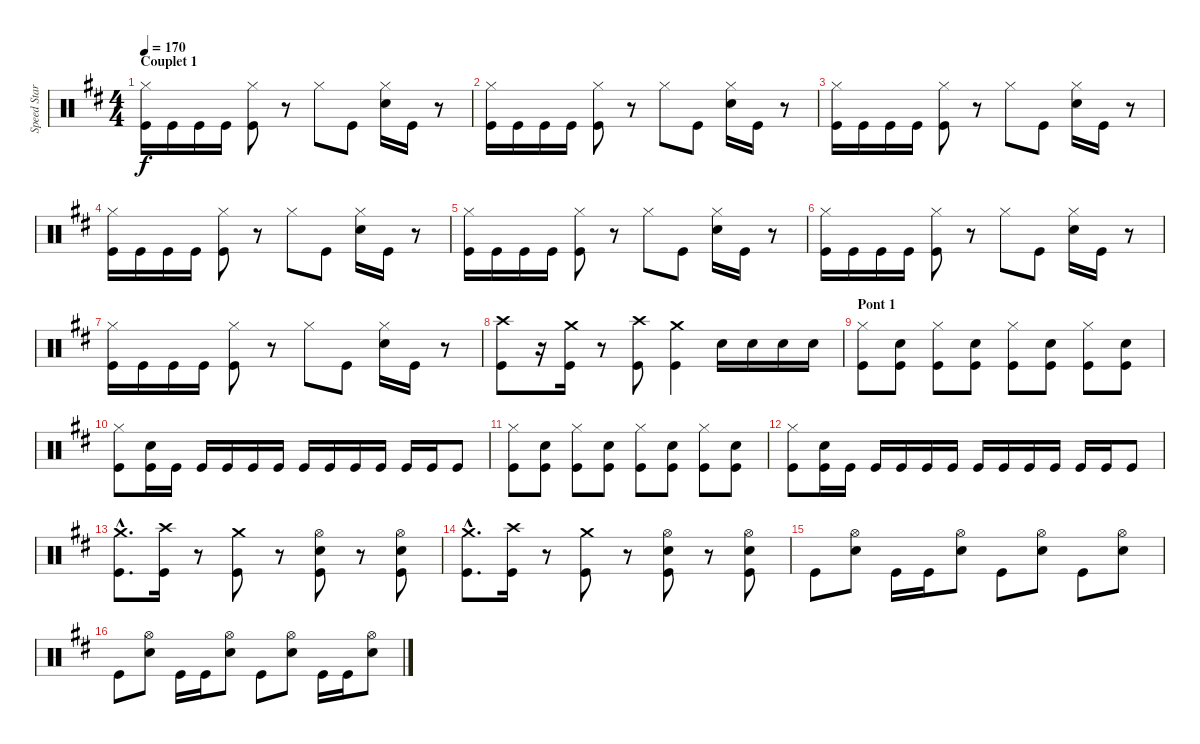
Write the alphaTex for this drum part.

\track ("Speed Star" "Speed Star") {instrument percussion}
\staff {score}
\articulation defaults
\ts (4 4)
\section ("" "Couplet 1")
\tempo 170
\clef neutral
\ks d
("Kick (hit)" "Hi-Hat (closed)").16{dy f} "Kick (hit)".16 "Kick (hit)".16 "Kick (hit)".16 ("Kick (hit)" "Hi-Hat (closed)").8 r.8 "Hi-Hat (closed)".8 "Kick (hit)".8 ("Snare (hit) 2" "Hi-Hat (closed)").16 "Kick (hit)".16 r.8 |
("Kick (hit)" "Hi-Hat (closed)").16 "Kick (hit)".16 "Kick (hit)".16 "Kick (hit)".16 ("Kick (hit)" "Hi-Hat (closed)").8 r.8 "Hi-Hat (closed)".8 "Kick (hit)".8 ("Snare (hit) 2" "Hi-Hat (closed)").16 "Kick (hit)".16 r.8 |
("Kick (hit)" "Hi-Hat (closed)").16 "Kick (hit)".16 "Kick (hit)".16 "Kick (hit)".16 ("Kick (hit)" "Hi-Hat (closed)").8 r.8 "Hi-Hat (closed)".8 "Kick (hit)".8 ("Snare (hit) 2" "Hi-Hat (closed)").16 "Kick (hit)".16 r.8 |
("Kick (hit)" "Hi-Hat (closed)").16 "Kick (hit)".16 "Kick (hit)".16 "Kick (hit)".16 ("Kick (hit)" "Hi-Hat (closed)").8 r.8 "Hi-Hat (closed)".8 "Kick (hit)".8 ("Snare (hit) 2" "Hi-Hat (closed)").16 "Kick (hit)".16 r.8 |
("Kick (hit)" "Hi-Hat (closed)").16 "Kick (hit)".16 "Kick (hit)".16 "Kick (hit)".16 ("Kick (hit)" "Hi-Hat (closed)").8 r.8 "Hi-Hat (closed)".8 "Kick (hit)".8 ("Snare (hit) 2" "Hi-Hat (closed)").16 "Kick (hit)".16 r.8 |
("Kick (hit)" "Hi-Hat (closed)").16 "Kick (hit)".16 "Kick (hit)".16 "Kick (hit)".16 ("Kick (hit)" "Hi-Hat (closed)").8 r.8 "Hi-Hat (closed)".8 "Kick (hit)".8 ("Snare (hit) 2" "Hi-Hat (closed)").16 "Kick (hit)".16 r.8 |
("Kick (hit)" "Hi-Hat (closed)").16 "Kick (hit)".16 "Kick (hit)".16 "Kick (hit)".16 ("Kick (hit)" "Hi-Hat (closed)").8 r.8 "Hi-Hat (closed)".8 "Kick (hit)".8 ("Snare (hit) 2" "Hi-Hat (closed)").16 "Kick (hit)".16 r.8 |
("Kick (hit)" "Crash high (hit)").8 r.16 ("Kick (hit)" "Crash medium (hit)").16 r.8 ("Kick (hit)" "Crash high (hit)").8 ("Kick (hit)" "Crash medium (hit)").4 "Snare (hit) 2".16 "Snare (hit) 2".16 "Snare (hit) 2".16 "Snare (hit) 2".16 |
\section ("" "Pont 1")
("Kick (hit)" "Hi-Hat (closed)").8 ("Kick (hit)" "Snare (hit) 2").8 ("Kick (hit)" "Hi-Hat (closed)").8 ("Kick (hit)" "Snare (hit) 2").8 ("Kick (hit)" "Hi-Hat (closed)").8 ("Kick (hit)" "Snare (hit) 2").8 ("Kick (hit)" "Hi-Hat (closed)").8 ("Kick (hit)" "Snare (hit) 2").8 |
("Kick (hit)" "Hi-Hat (closed)").8 ("Kick (hit)" "Snare (hit) 2").16 "Kick (hit)".16 "Kick (hit)".16 "Kick (hit)".16 "Kick (hit)".16 "Kick (hit)".16 "Kick (hit)".16 "Kick (hit)".16 "Kick (hit)".16 "Kick (hit)".16 "Kick (hit)".16 "Kick (hit)".16 "Kick (hit)".8 |
("Kick (hit)" "Hi-Hat (closed)").8 ("Kick (hit)" "Snare (hit) 2").8 ("Kick (hit)" "Hi-Hat (closed)").8 ("Kick (hit)" "Snare (hit) 2").8 ("Kick (hit)" "Hi-Hat (closed)").8 ("Kick (hit)" "Snare (hit) 2").8 ("Kick (hit)" "Hi-Hat (closed)").8 ("Kick (hit)" "Snare (hit) 2").8 |
("Kick (hit)" "Hi-Hat (closed)").8 ("Kick (hit)" "Snare (hit) 2").16 "Kick (hit)".16 "Kick (hit)".16 "Kick (hit)".16 "Kick (hit)".16 "Kick (hit)".16 "Kick (hit)".16 "Kick (hit)".16 "Kick (hit)".16 "Kick (hit)".16 "Kick (hit)".16 "Kick (hit)".16 "Kick (hit)".8 |
("Kick (hit)"{hac} "Crash medium (hit)"{hac}).8{d} ("Kick (hit)" "Crash high (hit)").16 r.8 ("Kick (hit)" "Crash medium (hit)").8 r.8 ("Snare (hit) 2" "Kick (hit)" "Hi-Hat (open)").8 r.8 ("Snare (hit) 2" "Kick (hit)" "Hi-Hat (open)").8 |
("Kick (hit)"{hac} "Crash medium (hit)"{hac}).8{d} ("Kick (hit)" "Crash high (hit)").16 r.8 ("Kick (hit)" "Crash medium (hit)").8 r.8 ("Snare (hit) 2" "Kick (hit)" "Hi-Hat (open)").8 r.8 ("Snare (hit) 2" "Kick (hit)" "Hi-Hat (open)").8 |
"Kick (hit)".8 ("Snare (hit) 2" "Hi-Hat (open)").8 "Kick (hit)".16 "Kick (hit)".16 ("Snare (hit) 2" "Hi-Hat (open)").8 "Kick (hit)".8 ("Snare (hit) 2" "Hi-Hat (open)").8 "Kick (hit)".8 ("Snare (hit) 2" "Hi-Hat (open)").8 |
"Kick (hit)".8 ("Snare (hit) 2" "Hi-Hat (open)").8 "Kick (hit)".16 "Kick (hit)".16 ("Snare (hit) 2" "Hi-Hat (open)").8 "Kick (hit)".8 ("Snare (hit) 2" "Hi-Hat (open)").8 "Kick (hit)".16 "Kick (hit)".16 ("Snare (hit) 2" "Hi-Hat (open)").8
